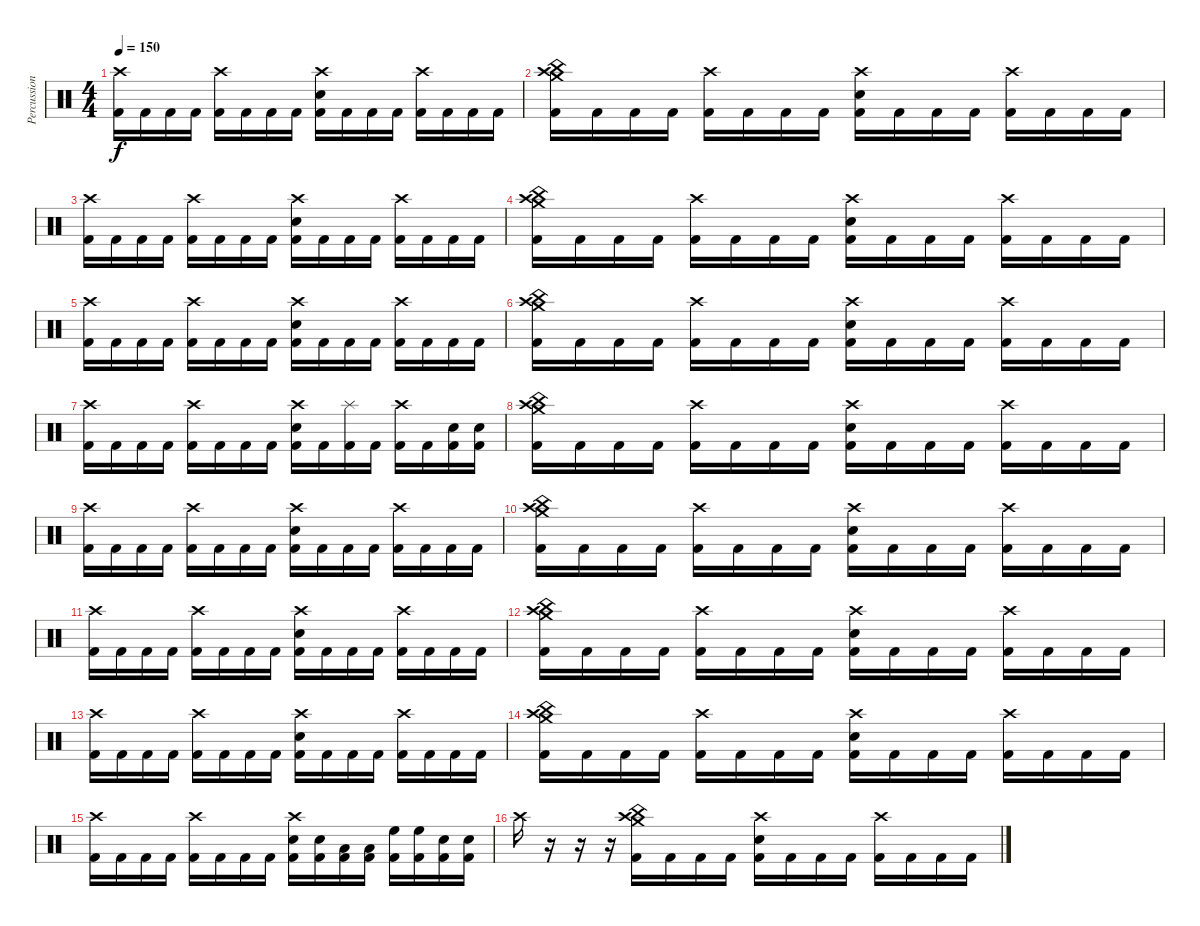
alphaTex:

\track ("Percussion" "Percussion") {instrument percussion}
\staff {score}
\articulation defaults
\ts (4 4)
\tempo 150
\clef neutral
\ks c
("Crash high (hit)" "Kick (hit) 2").16{dy f} "Kick (hit) 2".16 "Kick (hit) 2".16 "Kick (hit) 2".16 ("Crash high (hit)" "Kick (hit) 2").16 "Kick (hit) 2".16 "Kick (hit) 2".16 "Kick (hit) 2".16 ("Crash high (hit)" "Electric Snare (hit)" "Kick (hit) 2").16 "Kick (hit) 2".16 "Kick (hit) 2".16 "Kick (hit) 2".16 ("Crash high (hit)" "Kick (hit) 2").16 "Kick (hit) 2".16 "Kick (hit) 2".16 "Kick (hit) 2".16 |
("Crash high (hit)" "China (hit)" "Crash medium (hit)" "Kick (hit) 2").16 "Kick (hit) 2".16 "Kick (hit) 2".16 "Kick (hit) 2".16 ("Crash high (hit)" "Kick (hit) 2").16 "Kick (hit) 2".16 "Kick (hit) 2".16 "Kick (hit) 2".16 ("Crash high (hit)" "Electric Snare (hit)" "Kick (hit) 2").16 "Kick (hit) 2".16 "Kick (hit) 2".16 "Kick (hit) 2".16 ("Crash high (hit)" "Kick (hit) 2").16 "Kick (hit) 2".16 "Kick (hit) 2".16 "Kick (hit) 2".16 |
("Crash high (hit)" "Kick (hit) 2").16 "Kick (hit) 2".16 "Kick (hit) 2".16 "Kick (hit) 2".16 ("Crash high (hit)" "Kick (hit) 2").16 "Kick (hit) 2".16 "Kick (hit) 2".16 "Kick (hit) 2".16 ("Crash high (hit)" "Electric Snare (hit)" "Kick (hit) 2").16 "Kick (hit) 2".16 "Kick (hit) 2".16 "Kick (hit) 2".16 ("Crash high (hit)" "Kick (hit) 2").16 "Kick (hit) 2".16 "Kick (hit) 2".16 "Kick (hit) 2".16 |
("Crash high (hit)" "China (hit)" "Crash medium (hit)" "Kick (hit) 2").16 "Kick (hit) 2".16 "Kick (hit) 2".16 "Kick (hit) 2".16 ("Crash high (hit)" "Kick (hit) 2").16 "Kick (hit) 2".16 "Kick (hit) 2".16 "Kick (hit) 2".16 ("Crash high (hit)" "Electric Snare (hit)" "Kick (hit) 2").16 "Kick (hit) 2".16 "Kick (hit) 2".16 "Kick (hit) 2".16 ("Crash high (hit)" "Kick (hit) 2").16 "Kick (hit) 2".16 "Kick (hit) 2".16 "Kick (hit) 2".16 |
("Crash high (hit)" "Kick (hit) 2").16 "Kick (hit) 2".16 "Kick (hit) 2".16 "Kick (hit) 2".16 ("Crash high (hit)" "Kick (hit) 2").16 "Kick (hit) 2".16 "Kick (hit) 2".16 "Kick (hit) 2".16 ("Crash high (hit)" "Electric Snare (hit)" "Kick (hit) 2").16 "Kick (hit) 2".16 "Kick (hit) 2".16 "Kick (hit) 2".16 ("Crash high (hit)" "Kick (hit) 2").16 "Kick (hit) 2".16 "Kick (hit) 2".16 "Kick (hit) 2".16 |
("Crash high (hit)" "China (hit)" "Crash medium (hit)" "Kick (hit) 2").16 "Kick (hit) 2".16 "Kick (hit) 2".16 "Kick (hit) 2".16 ("Crash high (hit)" "Kick (hit) 2").16 "Kick (hit) 2".16 "Kick (hit) 2".16 "Kick (hit) 2".16 ("Crash high (hit)" "Electric Snare (hit)" "Kick (hit) 2").16 "Kick (hit) 2".16 "Kick (hit) 2".16 "Kick (hit) 2".16 ("Crash high (hit)" "Kick (hit) 2").16 "Kick (hit) 2".16 "Kick (hit) 2".16 "Kick (hit) 2".16 |
("Crash high (hit)" "Kick (hit) 2").16 "Kick (hit) 2".16 "Kick (hit) 2".16 "Kick (hit) 2".16 ("Crash high (hit)" "Kick (hit) 2").16 "Kick (hit) 2".16 "Kick (hit) 2".16 "Kick (hit) 2".16 ("Crash high (hit)" "Electric Snare (hit)" "Kick (hit) 2").16 "Kick (hit) 2".16 ("Splash (hit)" "Kick (hit) 2").16 "Kick (hit) 2".16 ("Crash high (hit)" "Kick (hit) 2").16 "Kick (hit) 2".16 ("Electric Snare (hit)" "Kick (hit) 2").16 ("Electric Snare (hit)" "Kick (hit) 2").16 |
("Crash high (hit)" "China (hit)" "Crash medium (hit)" "Kick (hit) 2").16 "Kick (hit) 2".16 "Kick (hit) 2".16 "Kick (hit) 2".16 ("Crash high (hit)" "Kick (hit) 2").16 "Kick (hit) 2".16 "Kick (hit) 2".16 "Kick (hit) 2".16 ("Crash high (hit)" "Electric Snare (hit)" "Kick (hit) 2").16 "Kick (hit) 2".16 "Kick (hit) 2".16 "Kick (hit) 2".16 ("Crash high (hit)" "Kick (hit) 2").16 "Kick (hit) 2".16 "Kick (hit) 2".16 "Kick (hit) 2".16 |
("Crash high (hit)" "Kick (hit) 2").16 "Kick (hit) 2".16 "Kick (hit) 2".16 "Kick (hit) 2".16 ("Crash high (hit)" "Kick (hit) 2").16 "Kick (hit) 2".16 "Kick (hit) 2".16 "Kick (hit) 2".16 ("Crash high (hit)" "Electric Snare (hit)" "Kick (hit) 2").16 "Kick (hit) 2".16 "Kick (hit) 2".16 "Kick (hit) 2".16 ("Crash high (hit)" "Kick (hit) 2").16 "Kick (hit) 2".16 "Kick (hit) 2".16 "Kick (hit) 2".16 |
("Crash high (hit)" "China (hit)" "Crash medium (hit)" "Kick (hit) 2").16 "Kick (hit) 2".16 "Kick (hit) 2".16 "Kick (hit) 2".16 ("Crash high (hit)" "Kick (hit) 2").16 "Kick (hit) 2".16 "Kick (hit) 2".16 "Kick (hit) 2".16 ("Crash high (hit)" "Electric Snare (hit)" "Kick (hit) 2").16 "Kick (hit) 2".16 "Kick (hit) 2".16 "Kick (hit) 2".16 ("Crash high (hit)" "Kick (hit) 2").16 "Kick (hit) 2".16 "Kick (hit) 2".16 "Kick (hit) 2".16 |
("Crash high (hit)" "Kick (hit) 2").16 "Kick (hit) 2".16 "Kick (hit) 2".16 "Kick (hit) 2".16 ("Crash high (hit)" "Kick (hit) 2").16 "Kick (hit) 2".16 "Kick (hit) 2".16 "Kick (hit) 2".16 ("Crash high (hit)" "Electric Snare (hit)" "Kick (hit) 2").16 "Kick (hit) 2".16 "Kick (hit) 2".16 "Kick (hit) 2".16 ("Crash high (hit)" "Kick (hit) 2").16 "Kick (hit) 2".16 "Kick (hit) 2".16 "Kick (hit) 2".16 |
("Crash high (hit)" "China (hit)" "Crash medium (hit)" "Kick (hit) 2").16 "Kick (hit) 2".16 "Kick (hit) 2".16 "Kick (hit) 2".16 ("Crash high (hit)" "Kick (hit) 2").16 "Kick (hit) 2".16 "Kick (hit) 2".16 "Kick (hit) 2".16 ("Crash high (hit)" "Electric Snare (hit)" "Kick (hit) 2").16 "Kick (hit) 2".16 "Kick (hit) 2".16 "Kick (hit) 2".16 ("Crash high (hit)" "Kick (hit) 2").16 "Kick (hit) 2".16 "Kick (hit) 2".16 "Kick (hit) 2".16 |
("Crash high (hit)" "Kick (hit) 2").16 "Kick (hit) 2".16 "Kick (hit) 2".16 "Kick (hit) 2".16 ("Crash high (hit)" "Kick (hit) 2").16 "Kick (hit) 2".16 "Kick (hit) 2".16 "Kick (hit) 2".16 ("Crash high (hit)" "Electric Snare (hit)" "Kick (hit) 2").16 "Kick (hit) 2".16 "Kick (hit) 2".16 "Kick (hit) 2".16 ("Crash high (hit)" "Kick (hit) 2").16 "Kick (hit) 2".16 "Kick (hit) 2".16 "Kick (hit) 2".16 |
("Crash high (hit)" "China (hit)" "Crash medium (hit)" "Kick (hit) 2").16 "Kick (hit) 2".16 "Kick (hit) 2".16 "Kick (hit) 2".16 ("Crash high (hit)" "Kick (hit) 2").16 "Kick (hit) 2".16 "Kick (hit) 2".16 "Kick (hit) 2".16 ("Crash high (hit)" "Electric Snare (hit)" "Kick (hit) 2").16 "Kick (hit) 2".16 "Kick (hit) 2".16 "Kick (hit) 2".16 ("Crash high (hit)" "Kick (hit) 2").16 "Kick (hit) 2".16 "Kick (hit) 2".16 "Kick (hit) 2".16 |
("Crash high (hit)" "Kick (hit) 2").16 "Kick (hit) 2".16 "Kick (hit) 2".16 "Kick (hit) 2".16 ("Crash high (hit)" "Kick (hit) 2").16 "Kick (hit) 2".16 "Kick (hit) 2".16 "Kick (hit) 2".16 ("Crash high (hit)" "Electric Snare (hit)" "Kick (hit) 2").16 ("Electric Snare (hit)" "Kick (hit) 2").16 ("Low Tom (hit)" "Kick (hit) 2").16 ("Low Tom (hit)" "Kick (hit) 2").16 ("High Floor Tom (hit)" "Kick (hit) 2").16 ("High Floor Tom (hit)" "Kick (hit) 2").16 ("Electric Snare (hit)" "Kick (hit) 2").16 ("Electric Snare (hit)" "Kick (hit) 2").16 |
"Crash high (hit)".16 r.16 r.16 r.16 ("Crash high (hit)" "Crash medium (hit)" "China (hit)" "Kick (hit) 2").16 "Kick (hit) 2".16 "Kick (hit) 2".16 "Kick (hit) 2".16 ("Crash high (hit)" "Electric Snare (hit)" "Kick (hit) 2").16 "Kick (hit) 2".16 "Kick (hit) 2".16 "Kick (hit) 2".16 ("Crash high (hit)" "Kick (hit) 2").16 "Kick (hit) 2".16 "Kick (hit) 2".16 "Kick (hit) 2".16
